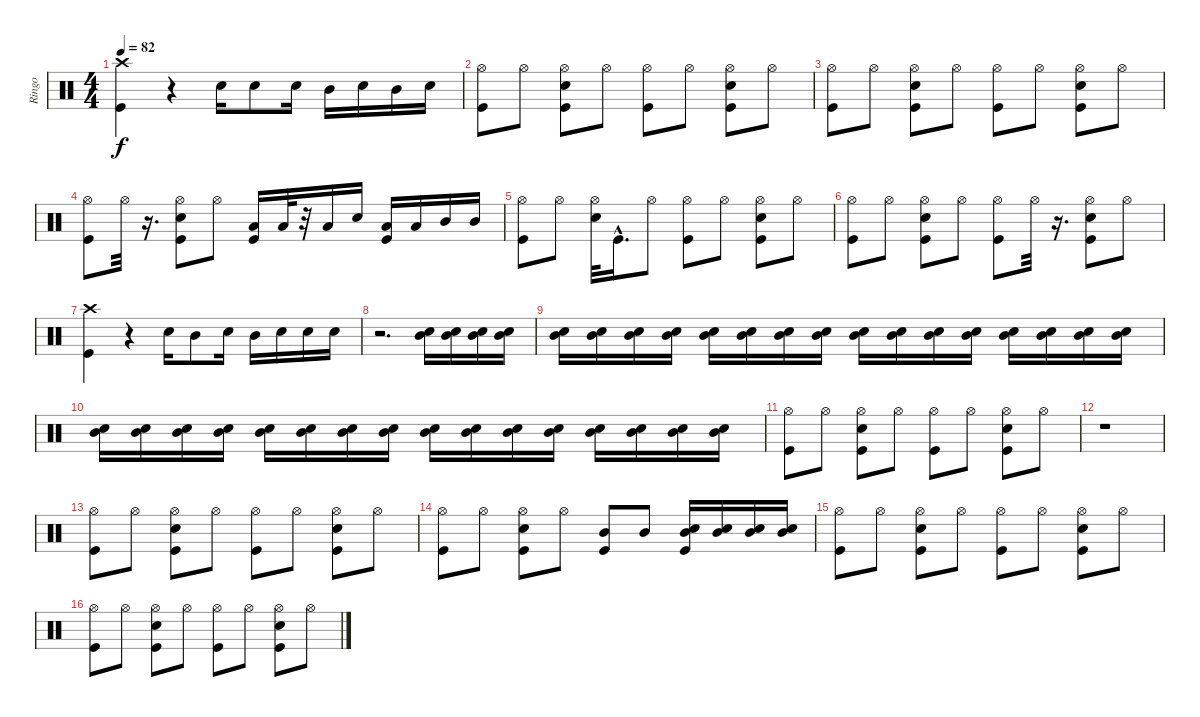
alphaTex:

\track ("Ringo" "Ringo") {instrument percussion}
\staff {score}
\articulation defaults
\ts (4 4)
\tempo 82
\clef neutral
\ks c
("Crash high (hit)" "Kick (hit)").4{dy f} r.4 "Electric Snare (hit)".16 "Electric Snare (hit)".8 "Electric Snare (hit)".16 "Mid Tom (hit)".16 "Electric Snare (hit)".16 "Mid Tom (hit)".16 "Electric Snare (hit)".16 |
("Hi-Hat (open)" "Kick (hit)").8 "Hi-Hat (open)".8 ("Electric Snare (hit)" "Hi-Hat (open)" "Kick (hit)").8 "Hi-Hat (open)".8 ("Hi-Hat (open)" "Kick (hit)").8 "Hi-Hat (open)".8 ("Hi-Hat (open)" "Electric Snare (hit)" "Kick (hit)").8 "Hi-Hat (open)".8 |
("Hi-Hat (open)" "Kick (hit)").8 "Hi-Hat (open)".8 ("Electric Snare (hit)" "Hi-Hat (open)" "Kick (hit)").8 "Hi-Hat (open)".8 ("Kick (hit)" "Hi-Hat (open)").8 "Hi-Hat (open)".8 ("Hi-Hat (open)" "Electric Snare (hit)" "Kick (hit)").8 "Hi-Hat (open)".8 |
("Kick (hit)" "Hi-Hat (open)").8 "Hi-Hat (open)".32 r.16{d} ("Hi-Hat (open)" "Electric Snare (hit)" "Kick (hit)").8 "Hi-Hat (open)".8 ("Kick (hit)" "Low Floor Tom (hit)").16 "Low Floor Tom (hit)".32 r.32 "Low Floor Tom (hit)".16 "Electric Snare (hit)".16 ("Kick (hit)" "Low Floor Tom (hit)").16 "Low Floor Tom (hit)".16 "Mid Tom (hit)".16 "Mid Tom (hit)".16 |
("Kick (hit)" "Hi-Hat (open)").8 "Hi-Hat (open)".8 ("Hi-Hat (open)" "Electric Snare (hit)").32 "Kick (hit)"{hac}.16{d} "Hi-Hat (open)".8 ("Kick (hit)" "Hi-Hat (open)").8 "Hi-Hat (open)".8 ("Electric Snare (hit)" "Kick (hit)" "Hi-Hat (open)").8 "Hi-Hat (open)".8 |
("Kick (hit)" "Hi-Hat (open)").8 "Hi-Hat (open)".8 ("Kick (hit)" "Electric Snare (hit)" "Hi-Hat (open)").8 "Hi-Hat (open)".8 ("Kick (hit)" "Hi-Hat (open)").8 "Hi-Hat (open)".32 r.16{d} ("Electric Snare (hit)" "Kick (hit)" "Hi-Hat (open)").8 "Hi-Hat (open)".8 |
("Crash high (hit)" "Kick (hit)").4 r.4 "Electric Snare (hit)".16 "Mid Tom (hit)".8 "Electric Snare (hit)".16 "Mid Tom (hit)".16 "Electric Snare (hit)".16 "Electric Snare (hit)".16 "Electric Snare (hit)".16 |
r.2{d} ("Electric Snare (hit)" "Mid Tom (hit)").16 ("Mid Tom (hit)" "Electric Snare (hit)").16 ("Mid Tom (hit)" "Electric Snare (hit)").16 ("Mid Tom (hit)" "Electric Snare (hit)").16 |
("Electric Snare (hit)" "Mid Tom (hit)").16 ("Electric Snare (hit)" "Mid Tom (hit)").16 ("Electric Snare (hit)" "Mid Tom (hit)").16 ("Electric Snare (hit)" "Mid Tom (hit)").16 ("Electric Snare (hit)" "Mid Tom (hit)").16 ("Electric Snare (hit)" "Mid Tom (hit)").16 ("Electric Snare (hit)" "Mid Tom (hit)").16 ("Electric Snare (hit)" "Mid Tom (hit)").16 ("Electric Snare (hit)" "Mid Tom (hit)").16 ("Electric Snare (hit)" "Mid Tom (hit)").16 ("Electric Snare (hit)" "Mid Tom (hit)").16 ("Electric Snare (hit)" "Mid Tom (hit)").16 ("Electric Snare (hit)" "Mid Tom (hit)").16 ("Electric Snare (hit)" "Mid Tom (hit)").16 ("Electric Snare (hit)" "Mid Tom (hit)").16 ("Electric Snare (hit)" "Mid Tom (hit)").16 |
("Electric Snare (hit)" "Mid Tom (hit)").16 ("Electric Snare (hit)" "Mid Tom (hit)").16 ("Electric Snare (hit)" "Mid Tom (hit)").16 ("Electric Snare (hit)" "Mid Tom (hit)").16 ("Electric Snare (hit)" "Mid Tom (hit)").16 ("Electric Snare (hit)" "Mid Tom (hit)").16 ("Electric Snare (hit)" "Mid Tom (hit)").16 ("Electric Snare (hit)" "Mid Tom (hit)").16 ("Electric Snare (hit)" "Mid Tom (hit)").16 ("Electric Snare (hit)" "Mid Tom (hit)").16 ("Electric Snare (hit)" "Mid Tom (hit)").16 ("Electric Snare (hit)" "Mid Tom (hit)").16 ("Electric Snare (hit)" "Mid Tom (hit)").16 ("Electric Snare (hit)" "Mid Tom (hit)").16 ("Electric Snare (hit)" "Mid Tom (hit)").16 ("Electric Snare (hit)" "Mid Tom (hit)").16 |
("Hi-Hat (open)" "Kick (hit)").8 "Hi-Hat (open)".8 ("Electric Snare (hit)" "Hi-Hat (open)" "Kick (hit)").8 "Hi-Hat (open)".8 ("Hi-Hat (open)" "Kick (hit)").8 "Hi-Hat (open)".8 ("Hi-Hat (open)" "Electric Snare (hit)" "Kick (hit)").8 "Hi-Hat (open)".8 |
r.1 |
("Kick (hit)" "Hi-Hat (open)").8 "Hi-Hat (open)".8 ("Electric Snare (hit)" "Kick (hit)" "Hi-Hat (open)").8 "Hi-Hat (open)".8 ("Kick (hit)" "Hi-Hat (open)").8 "Hi-Hat (open)".8 ("Electric Snare (hit)" "Kick (hit)" "Hi-Hat (open)").8 "Hi-Hat (open)".8 |
("Kick (hit)" "Hi-Hat (open)").8 "Hi-Hat (open)".8 ("Electric Snare (hit)" "Kick (hit)" "Hi-Hat (open)").8 "Hi-Hat (open)".8 ("Mid Tom (hit)" "Kick (hit)").8 "Mid Tom (hit)".8 ("Electric Snare (hit)" "Mid Tom (hit)" "Kick (hit)").16 ("Electric Snare (hit)" "Mid Tom (hit)").16 ("Electric Snare (hit)" "Mid Tom (hit)").16 ("Electric Snare (hit)" "Mid Tom (hit)").16 |
("Kick (hit)" "Hi-Hat (open)").8 "Hi-Hat (open)".8 ("Electric Snare (hit)" "Kick (hit)" "Hi-Hat (open)").8 "Hi-Hat (open)".8 ("Kick (hit)" "Hi-Hat (open)").8 "Hi-Hat (open)".8 ("Electric Snare (hit)" "Kick (hit)" "Hi-Hat (open)").8 "Hi-Hat (open)".8 |
("Kick (hit)" "Hi-Hat (open)").8 "Hi-Hat (open)".8 ("Electric Snare (hit)" "Kick (hit)" "Hi-Hat (open)").8 "Hi-Hat (open)".8 ("Kick (hit)" "Hi-Hat (open)").8 "Hi-Hat (open)".8 ("Electric Snare (hit)" "Kick (hit)" "Hi-Hat (open)").8 "Hi-Hat (open)".8
